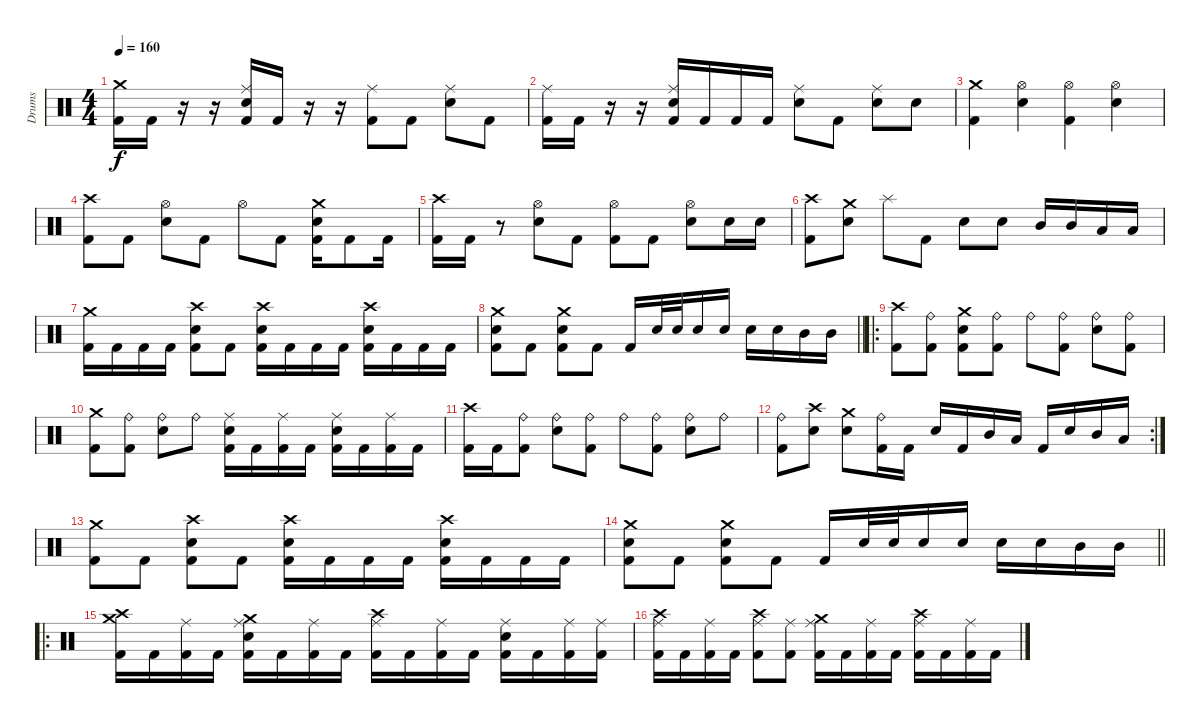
\track ("Drums" "Drums") {instrument percussion}
\staff {score}
\articulation defaults
\ts (4 4)
\tempo 160
\clef neutral
\ks c
("Crash medium (hit)" "Kick (hit) 2").16{dy f} "Kick (hit) 2".16 r.16 r.16 ("Ride (middle)" "Electric Snare (hit)" "Kick (hit) 2").16 "Kick (hit) 2".16 r.16 r.16 ("Ride (middle)" "Kick (hit) 2").8 "Kick (hit) 2".8 ("Ride (middle)" "Electric Snare (hit)").8 "Kick (hit) 2".8 |
("Ride (middle)" "Kick (hit) 2").16 "Kick (hit) 2".16 r.16 r.16 ("Ride (middle)" "Electric Snare (hit)" "Kick (hit) 2").16 "Kick (hit) 2".16 "Kick (hit) 2".16 "Kick (hit) 2".16 ("Ride (middle)" "Electric Snare (hit)").8 "Kick (hit) 2".8 ("Ride (middle)" "Electric Snare (hit)").8 "Electric Snare (hit)".8 |
("Crash medium (hit)" "Kick (hit) 2").4 ("Hi-Hat (open)" "Electric Snare (hit)").4 ("Hi-Hat (open)" "Kick (hit) 2").4 ("Hi-Hat (open)" "Electric Snare (hit)").4 |
("Crash high (hit)" "Kick (hit) 2").8 "Kick (hit) 2".8 ("Hi-Hat (open)" "Electric Snare (hit)").8 "Kick (hit) 2".8 "Hi-Hat (open)".8 "Kick (hit) 2".8 ("Crash medium (hit)" "Electric Snare (hit)" "Kick (hit) 2").16 "Kick (hit) 2".8 "Kick (hit) 2".16 |
("Crash high (hit)" "Kick (hit) 2").16 "Kick (hit) 2".16 r.8 ("Hi-Hat (open)" "Electric Snare (hit)").8 "Kick (hit) 2".8 ("Hi-Hat (open)" "Kick (hit) 2").8 "Kick (hit) 2".8 ("Hi-Hat (open)" "Electric Snare (hit)").8 "Electric Snare (hit)".16 "Electric Snare (hit)".16 |
("Crash high (hit)" "Kick (hit) 2").8 ("Crash medium (hit)" "Electric Snare (hit)").8 "Splash (hit)".8 "Kick (hit) 2".8 "Electric Snare (hit)".8 "Electric Snare (hit)".8 "Mid Tom (hit)".16 "Mid Tom (hit)".16 "Low Tom (hit)".16 "Low Tom (hit)".16 |
("Crash medium (hit)" "Kick (hit) 2").16 "Kick (hit) 2".16 "Kick (hit) 2".16 "Kick (hit) 2".16 ("Crash high (hit)" "Electric Snare (hit)" "Kick (hit) 2").8 "Kick (hit) 2".8 ("Crash high (hit)" "Electric Snare (hit)" "Kick (hit) 2").16 "Kick (hit) 2".16 "Kick (hit) 2".16 "Kick (hit) 2".16 ("Crash high (hit)" "Electric Snare (hit)" "Kick (hit) 2").16 "Kick (hit) 2".16 "Kick (hit) 2".16 "Kick (hit) 2".16 |
\barLineRight lightlight
("Crash medium (hit)" "Electric Snare (hit)" "Kick (hit) 2").8 "Kick (hit) 2".8 ("Crash medium (hit)" "Electric Snare (hit)" "Kick (hit) 2").8 "Kick (hit) 2".8 "Kick (hit) 2".16 "Electric Snare (hit)".32 "Electric Snare (hit)".32 "Electric Snare (hit)".16 "Electric Snare (hit)".16 "Electric Snare (hit)".16 "Electric Snare (hit)".16 "Mid Tom (hit)".16 "Mid Tom (hit)".16 |
\ro
("Crash high (hit)" "Kick (hit) 2").8 ("Ride (bell)" "Kick (hit) 2").8 ("Crash medium (hit)" "Electric Snare (hit)" "Kick (hit) 2").8 ("Ride (bell)" "Kick (hit) 2").8 "Ride (bell)".8 ("Ride (bell)" "Kick (hit) 2").8 ("Ride (bell)" "Electric Snare (hit)").8 ("Ride (bell)" "Kick (hit) 2").8 |
("Crash medium (hit)" "Kick (hit) 2").8 ("Ride (bell)" "Kick (hit) 2").8 ("Ride (bell)" "Electric Snare (hit)").8 "Ride (bell)".8 ("Ride (middle)" "Electric Snare (hit)" "Kick (hit) 2").16 "Kick (hit) 2".16 ("Ride (middle)" "Kick (hit) 2").16 "Kick (hit) 2".16 ("Ride (middle)" "Electric Snare (hit)" "Kick (hit) 2").16 "Kick (hit) 2".16 ("Ride (middle)" "Kick (hit) 2").16 "Kick (hit) 2".16 |
("Crash high (hit)" "Kick (hit) 2").16 "Kick (hit) 2".16 ("Ride (bell)" "Kick (hit) 2").8 ("Ride (bell)" "Electric Snare (hit)").8 ("Ride (bell)" "Kick (hit) 2").8 "Ride (bell)".8 ("Ride (bell)" "Kick (hit) 2").8 ("Ride (bell)" "Electric Snare (hit)").8 "Ride (bell)".8 |
\rc 2
("Ride (bell)" "Kick (hit) 2").8 ("Crash high (hit)" "Electric Snare (hit)").8 ("Crash medium (hit)" "Electric Snare (hit)").8 ("Ride (bell)" "Kick (hit) 2").16 "Kick (hit) 2".16 "Electric Snare (hit)".16 "Kick (hit) 2".16 "Mid Tom (hit)".16 "Low Tom (hit)".16 "Kick (hit) 2".16 "Electric Snare (hit)".16 "Mid Tom (hit)".16 "Low Tom (hit)".16 |
("Crash medium (hit)" "Kick (hit) 2").8 "Kick (hit) 2".8 ("Crash high (hit)" "Electric Snare (hit)" "Kick (hit) 2").8 "Kick (hit) 2".8 ("Crash high (hit)" "Electric Snare (hit)" "Kick (hit) 2").16 "Kick (hit) 2".16 "Kick (hit) 2".16 "Kick (hit) 2".16 ("Crash high (hit)" "Electric Snare (hit)" "Kick (hit) 2").16 "Kick (hit) 2".16 "Kick (hit) 2".16 "Kick (hit) 2".16 |
\barLineRight lightlight
("Crash medium (hit)" "Electric Snare (hit)" "Kick (hit) 2").8 "Kick (hit) 2".8 ("Crash medium (hit)" "Electric Snare (hit)" "Kick (hit) 2").8 "Kick (hit) 2".8 "Kick (hit) 2".16 "Electric Snare (hit)".32 "Electric Snare (hit)".32 "Electric Snare (hit)".16 "Electric Snare (hit)".16 "Electric Snare (hit)".16 "Electric Snare (hit)".16 "Mid Tom (hit)".16 "Mid Tom (hit)".16 |
\ro
("Crash medium (hit)" "Crash high (hit)" "Kick (hit) 2").16 "Kick (hit) 2".16 ("Ride (middle)" "Kick (hit) 2").16 "Kick (hit) 2".16 ("Crash medium (hit)" "Ride (middle)" "Electric Snare (hit)" "Kick (hit) 2").16 "Kick (hit) 2".16 ("Ride (middle)" "Kick (hit) 2").16 "Kick (hit) 2".16 ("Crash high (hit)" "Ride (middle)" "Kick (hit) 2").16 "Kick (hit) 2".16 ("Ride (middle)" "Kick (hit) 2").16 "Kick (hit) 2".16 ("Ride (middle)" "Electric Snare (hit)" "Kick (hit) 2").16 "Kick (hit) 2".16 ("Ride (middle)" "Kick (hit) 2").16 ("Ride (middle)" "Kick (hit) 2").16 |
("Crash high (hit)" "Ride (middle)" "Kick (hit) 2").16 "Kick (hit) 2".16 ("Ride (middle)" "Kick (hit) 2").16 "Kick (hit) 2".16 ("Crash high (hit)" "Ride (middle)" "Kick (hit) 2").8 ("Ride (middle)" "Kick (hit) 2").8 ("Crash medium (hit)" "Ride (middle)" "Kick (hit) 2").16 "Kick (hit) 2".16 ("Ride (middle)" "Kick (hit) 2").16 "Kick (hit) 2".16 ("Crash high (hit)" "Ride (middle)" "Kick (hit) 2").16 "Kick (hit) 2".16 ("Ride (middle)" "Kick (hit) 2").16 "Kick (hit) 2".16
